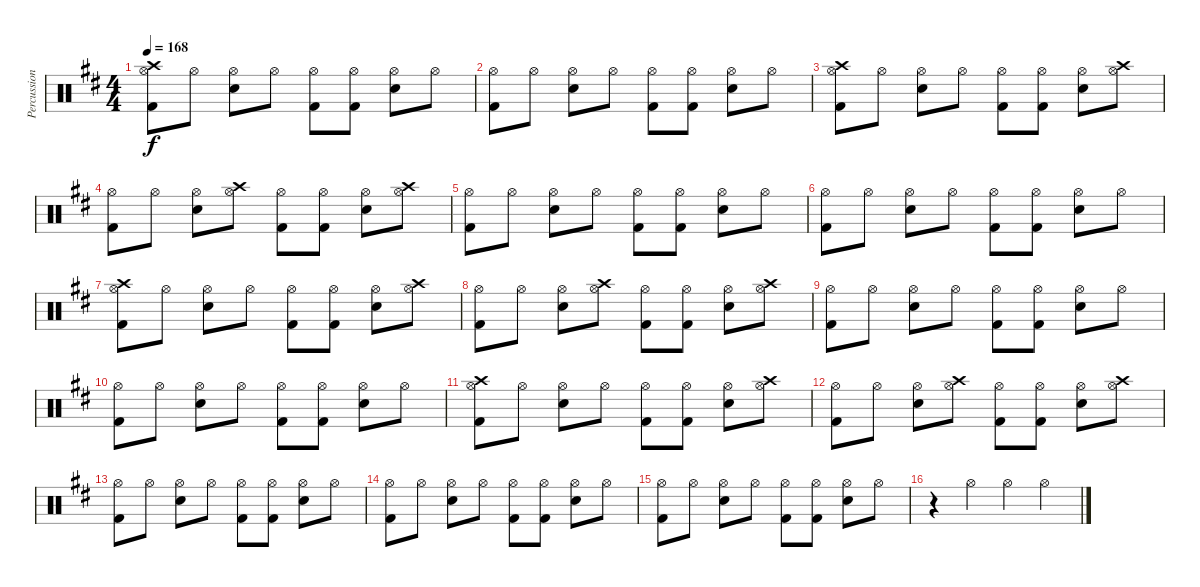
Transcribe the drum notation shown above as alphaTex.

\track ("Percussion" "Percussion") {instrument percussion}
\staff {score}
\articulation defaults
\ts (4 4)
\tempo 168
\clef neutral
\ks d
("Crash high (hit)" "Kick (hit) 2" "Hi-Hat (open)").8{dy f} "Hi-Hat (open)".8 ("Electric Snare (hit)" "Hi-Hat (open)").8 "Hi-Hat (open)".8 ("Kick (hit) 2" "Hi-Hat (open)").8 ("Kick (hit) 2" "Hi-Hat (open)").8 ("Electric Snare (hit)" "Hi-Hat (open)").8 "Hi-Hat (open)".8 |
("Kick (hit) 2" "Hi-Hat (open)").8 "Hi-Hat (open)".8 ("Electric Snare (hit)" "Hi-Hat (open)").8 "Hi-Hat (open)".8 ("Kick (hit) 2" "Hi-Hat (open)").8 ("Kick (hit) 2" "Hi-Hat (open)").8 ("Electric Snare (hit)" "Hi-Hat (open)").8 "Hi-Hat (open)".8 |
("Crash high (hit)" "Kick (hit) 2" "Hi-Hat (open)").8 "Hi-Hat (open)".8 ("Electric Snare (hit)" "Hi-Hat (open)").8 "Hi-Hat (open)".8 ("Kick (hit) 2" "Hi-Hat (open)").8 ("Kick (hit) 2" "Hi-Hat (open)").8 ("Electric Snare (hit)" "Hi-Hat (open)").8 ("Crash high (hit)" "Hi-Hat (open)").8 |
("Kick (hit) 2" "Hi-Hat (open)").8 "Hi-Hat (open)".8 ("Electric Snare (hit)" "Hi-Hat (open)").8 ("Crash high (hit)" "Hi-Hat (open)").8 ("Kick (hit) 2" "Hi-Hat (open)").8 ("Kick (hit) 2" "Hi-Hat (open)").8 ("Electric Snare (hit)" "Hi-Hat (open)").8 ("Crash high (hit)" "Hi-Hat (open)").8 |
("Kick (hit) 2" "Hi-Hat (open)").8 "Hi-Hat (open)".8 ("Electric Snare (hit)" "Hi-Hat (open)").8 "Hi-Hat (open)".8 ("Kick (hit) 2" "Hi-Hat (open)").8 ("Kick (hit) 2" "Hi-Hat (open)").8 ("Electric Snare (hit)" "Hi-Hat (open)").8 "Hi-Hat (open)".8 |
("Kick (hit) 2" "Hi-Hat (open)").8 "Hi-Hat (open)".8 ("Electric Snare (hit)" "Hi-Hat (open)").8 "Hi-Hat (open)".8 ("Kick (hit) 2" "Hi-Hat (open)").8 ("Kick (hit) 2" "Hi-Hat (open)").8 ("Electric Snare (hit)" "Hi-Hat (open)").8 "Hi-Hat (open)".8 |
("Crash high (hit)" "Kick (hit) 2" "Hi-Hat (open)").8 "Hi-Hat (open)".8 ("Electric Snare (hit)" "Hi-Hat (open)").8 "Hi-Hat (open)".8 ("Kick (hit) 2" "Hi-Hat (open)").8 ("Kick (hit) 2" "Hi-Hat (open)").8 ("Electric Snare (hit)" "Hi-Hat (open)").8 ("Crash high (hit)" "Hi-Hat (open)").8 |
("Kick (hit) 2" "Hi-Hat (open)").8 "Hi-Hat (open)".8 ("Electric Snare (hit)" "Hi-Hat (open)").8 ("Crash high (hit)" "Hi-Hat (open)").8 ("Kick (hit) 2" "Hi-Hat (open)").8 ("Kick (hit) 2" "Hi-Hat (open)").8 ("Electric Snare (hit)" "Hi-Hat (open)").8 ("Crash high (hit)" "Hi-Hat (open)").8 |
("Kick (hit) 2" "Hi-Hat (open)").8 "Hi-Hat (open)".8 ("Electric Snare (hit)" "Hi-Hat (open)").8 "Hi-Hat (open)".8 ("Kick (hit) 2" "Hi-Hat (open)").8 ("Kick (hit) 2" "Hi-Hat (open)").8 ("Electric Snare (hit)" "Hi-Hat (open)").8 "Hi-Hat (open)".8 |
("Kick (hit) 2" "Hi-Hat (open)").8 "Hi-Hat (open)".8 ("Electric Snare (hit)" "Hi-Hat (open)").8 "Hi-Hat (open)".8 ("Kick (hit) 2" "Hi-Hat (open)").8 ("Kick (hit) 2" "Hi-Hat (open)").8 ("Electric Snare (hit)" "Hi-Hat (open)").8 "Hi-Hat (open)".8 |
("Crash high (hit)" "Kick (hit) 2" "Hi-Hat (open)").8 "Hi-Hat (open)".8 ("Electric Snare (hit)" "Hi-Hat (open)").8 "Hi-Hat (open)".8 ("Kick (hit) 2" "Hi-Hat (open)").8 ("Kick (hit) 2" "Hi-Hat (open)").8 ("Electric Snare (hit)" "Hi-Hat (open)").8 ("Crash high (hit)" "Hi-Hat (open)").8 |
("Kick (hit) 2" "Hi-Hat (open)").8 "Hi-Hat (open)".8 ("Electric Snare (hit)" "Hi-Hat (open)").8 ("Crash high (hit)" "Hi-Hat (open)").8 ("Kick (hit) 2" "Hi-Hat (open)").8 ("Kick (hit) 2" "Hi-Hat (open)").8 ("Electric Snare (hit)" "Hi-Hat (open)").8 ("Crash high (hit)" "Hi-Hat (open)").8 |
("Kick (hit) 2" "Hi-Hat (open)").8 "Hi-Hat (open)".8 ("Electric Snare (hit)" "Hi-Hat (open)").8 "Hi-Hat (open)".8 ("Kick (hit) 2" "Hi-Hat (open)").8 ("Kick (hit) 2" "Hi-Hat (open)").8 ("Electric Snare (hit)" "Hi-Hat (open)").8 "Hi-Hat (open)".8 |
("Kick (hit) 2" "Hi-Hat (open)").8 "Hi-Hat (open)".8 ("Electric Snare (hit)" "Hi-Hat (open)").8 "Hi-Hat (open)".8 ("Kick (hit) 2" "Hi-Hat (open)").8 ("Kick (hit) 2" "Hi-Hat (open)").8 ("Electric Snare (hit)" "Hi-Hat (open)").8 "Hi-Hat (open)".8 |
("Kick (hit) 2" "Hi-Hat (open)").8 "Hi-Hat (open)".8 ("Electric Snare (hit)" "Hi-Hat (open)").8 "Hi-Hat (open)".8 ("Kick (hit) 2" "Hi-Hat (open)").8 ("Kick (hit) 2" "Hi-Hat (open)").8 ("Electric Snare (hit)" "Hi-Hat (open)").8 "Hi-Hat (open)".8 |
r.4 "Hi-Hat (open)".4 "Hi-Hat (open)".4 "Hi-Hat (open)".4
